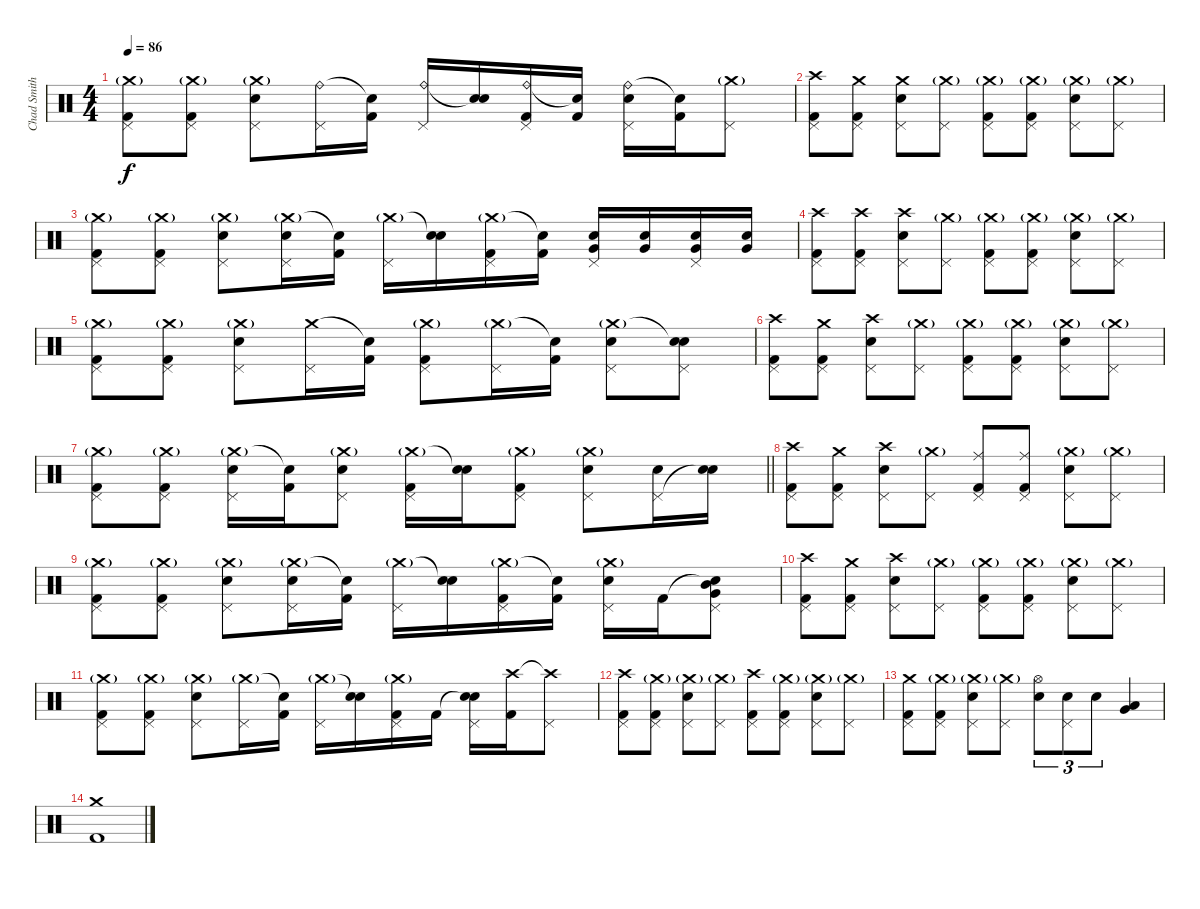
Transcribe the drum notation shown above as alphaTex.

\track ("Chad Smith" "Chad Smith") {instrument percussion}
\staff {score}
\articulation defaults
\ts (4 4)
\tempo 86
\clef neutral
\ks c
("Crash medium (hit)"{g} "Pedal Hi-Hat (hit)" "Kick (hit) 2").8{dy f} ("Crash medium (hit)"{g} "Pedal Hi-Hat (hit)" "Kick (hit) 2").8 ("Crash medium (hit)"{g} "Pedal Hi-Hat (hit)" "Electric Snare (hit)").8 ("Ride (bell)" "Pedal Hi-Hat (hit)").16 ("Snare (hit)"{t} "Kick (hit) 2").16 ("Ride (bell)" "Pedal Hi-Hat (hit)").16 ("Snare (hit)"{t} "Electric Snare (hit)").16 ("Ride (bell)" "Pedal Hi-Hat (hit)" "Kick (hit) 2").16 ("Snare (hit)"{t} "Kick (hit) 2").16 ("Ride (bell)" "Pedal Hi-Hat (hit)" "Electric Snare (hit)").16 ("Snare (hit)"{t} "Kick (hit) 2").16 ("Crash medium (hit)"{g} "Pedal Hi-Hat (hit)").8 |
("Crash high (hit)" "Pedal Hi-Hat (hit)" "Kick (hit) 2").8 ("Crash medium (hit)" "Pedal Hi-Hat (hit)" "Kick (hit) 2").8 ("Crash medium (hit)" "Pedal Hi-Hat (hit)" "Electric Snare (hit)").8 ("Crash medium (hit)"{g} "Pedal Hi-Hat (hit)").8 ("Crash medium (hit)"{g} "Pedal Hi-Hat (hit)" "Kick (hit) 2").8 ("Crash medium (hit)"{g} "Pedal Hi-Hat (hit)" "Kick (hit) 2").8 ("Crash medium (hit)"{g} "Pedal Hi-Hat (hit)" "Electric Snare (hit)").8 ("Crash medium (hit)"{g} "Pedal Hi-Hat (hit)").8 |
("Crash medium (hit)"{g} "Pedal Hi-Hat (hit)" "Kick (hit) 2").8 ("Crash medium (hit)"{g} "Pedal Hi-Hat (hit)" "Kick (hit) 2").8 ("Crash medium (hit)"{g} "Pedal Hi-Hat (hit)" "Electric Snare (hit)").8 ("Crash medium (hit)"{g} "Pedal Hi-Hat (hit)" "Electric Snare (hit)").16 ("Snare (hit)"{t} "Kick (hit) 2").16 ("Crash medium (hit)"{g} "Pedal Hi-Hat (hit)").16 ("Snare (hit)"{t} "Electric Snare (hit)").16 ("Crash medium (hit)"{g} "Pedal Hi-Hat (hit)" "Kick (hit) 2").16 ("Snare (hit)"{t} "Kick (hit) 2").16 ("Pedal Hi-Hat (hit)" "Electric Snare (hit)" "Very Low Tom (hit)").16 ("Electric Snare (hit)" "Very Low Tom (hit)").16 ("Pedal Hi-Hat (hit)" "Electric Snare (hit)" "Very Low Tom (hit)").16 ("Electric Snare (hit)" "Very Low Tom (hit)").16 |
("Crash high (hit)" "Pedal Hi-Hat (hit)" "Kick (hit) 2").8 ("Crash high (hit)" "Pedal Hi-Hat (hit)" "Kick (hit) 2").8 ("Crash high (hit)" "Pedal Hi-Hat (hit)" "Electric Snare (hit)").8 ("Crash medium (hit)"{g} "Pedal Hi-Hat (hit)").8 ("Crash medium (hit)"{g} "Pedal Hi-Hat (hit)" "Kick (hit) 2").8 ("Crash medium (hit)"{g} "Pedal Hi-Hat (hit)" "Kick (hit) 2").8 ("Crash medium (hit)"{g} "Pedal Hi-Hat (hit)" "Electric Snare (hit)").8 ("Crash medium (hit)"{g} "Pedal Hi-Hat (hit)").8 |
("Crash medium (hit)"{g} "Pedal Hi-Hat (hit)" "Kick (hit) 2").8 ("Crash medium (hit)"{g} "Pedal Hi-Hat (hit)" "Kick (hit) 2").8 ("Crash medium (hit)"{g} "Pedal Hi-Hat (hit)" "Electric Snare (hit)").8 ("Crash medium (hit)" "Pedal Hi-Hat (hit)").16 ("Snare (hit)"{t} "Kick (hit) 2").16 ("Crash medium (hit)"{g} "Pedal Hi-Hat (hit)" "Kick (hit) 2").8 ("Crash medium (hit)"{g} "Pedal Hi-Hat (hit)").16 ("Snare (hit)"{t} "Kick (hit) 2").16 ("Crash medium (hit)"{g} "Pedal Hi-Hat (hit)" "Electric Snare (hit)").8 ("Snare (hit)"{t} "Pedal Hi-Hat (hit)" "Electric Snare (hit)").8 |
("Crash high (hit)" "Pedal Hi-Hat (hit)" "Kick (hit) 2").8 ("Crash medium (hit)" "Pedal Hi-Hat (hit)" "Kick (hit) 2").8 ("Crash high (hit)" "Pedal Hi-Hat (hit)" "Electric Snare (hit)").8 ("Crash medium (hit)"{g} "Pedal Hi-Hat (hit)").8 ("Crash medium (hit)"{g} "Pedal Hi-Hat (hit)" "Kick (hit) 2").8 ("Crash medium (hit)"{g} "Pedal Hi-Hat (hit)" "Kick (hit) 2").8 ("Crash medium (hit)"{g} "Pedal Hi-Hat (hit)" "Electric Snare (hit)").8 ("Crash medium (hit)"{g} "Pedal Hi-Hat (hit)").8 |
\barLineRight lightlight
("Crash medium (hit)"{g} "Pedal Hi-Hat (hit)" "Kick (hit) 2").8 ("Crash medium (hit)"{g} "Pedal Hi-Hat (hit)" "Kick (hit) 2").8 ("Crash medium (hit)"{g} "Pedal Hi-Hat (hit)" "Electric Snare (hit)").16 ("Snare (hit)"{t} "Kick (hit) 2").16 ("Crash medium (hit)"{g} "Pedal Hi-Hat (hit)" "Electric Snare (hit)").8 ("Crash medium (hit)"{g} "Pedal Hi-Hat (hit)" "Kick (hit) 2").16 ("Snare (hit)"{t} "Electric Snare (hit)").16 ("Crash medium (hit)"{g} "Pedal Hi-Hat (hit)" "Kick (hit) 2").8 ("Crash medium (hit)"{g} "Pedal Hi-Hat (hit)" "Electric Snare (hit)").8 ("Pedal Hi-Hat (hit)" "Electric Snare (hit)").16 ("Snare (hit)"{t} "Electric Snare (hit)").16 |
("Crash high (hit)" "Pedal Hi-Hat (hit)" "Kick (hit) 2").8 ("Crash medium (hit)" "Pedal Hi-Hat (hit)" "Kick (hit) 2").8 ("Crash high (hit)" "Pedal Hi-Hat (hit)" "Electric Snare (hit)").8 ("Crash medium (hit)"{g} "Pedal Hi-Hat (hit)").8 ("Ride (middle)" "Pedal Hi-Hat (hit)" "Kick (hit) 2").8 ("Ride (middle)" "Pedal Hi-Hat (hit)" "Kick (hit) 2").8 ("Crash medium (hit)"{g} "Pedal Hi-Hat (hit)" "Electric Snare (hit)").8 ("Crash medium (hit)"{g} "Pedal Hi-Hat (hit)").8 |
("Crash medium (hit)"{g} "Pedal Hi-Hat (hit)" "Kick (hit) 2").8 ("Crash medium (hit)"{g} "Pedal Hi-Hat (hit)" "Kick (hit) 2").8 ("Crash medium (hit)"{g} "Pedal Hi-Hat (hit)" "Electric Snare (hit)").8 ("Crash medium (hit)"{g} "Pedal Hi-Hat (hit)" "Electric Snare (hit)").16 ("Snare (hit)"{t} "Kick (hit) 2").16 ("Crash medium (hit)"{g} "Pedal Hi-Hat (hit)").16 ("Snare (hit)"{t} "Electric Snare (hit)").16 ("Crash medium (hit)"{g} "Pedal Hi-Hat (hit)" "Kick (hit) 2").16 ("Snare (hit)"{t} "Kick (hit) 2").16 ("Crash medium (hit)"{g} "Pedal Hi-Hat (hit)" "Electric Snare (hit)").16 "Kick (hit) 2".16 ("Snare (hit)"{t} "Pedal Hi-Hat (hit)" "Mid Tom (hit)" "Very Low Tom (hit)").8 |
("Crash high (hit)" "Pedal Hi-Hat (hit)" "Kick (hit) 2").8 ("Crash medium (hit)" "Pedal Hi-Hat (hit)" "Kick (hit) 2").8 ("Crash high (hit)" "Pedal Hi-Hat (hit)" "Electric Snare (hit)").8 ("Crash medium (hit)"{g} "Pedal Hi-Hat (hit)").8 ("Crash medium (hit)"{g} "Pedal Hi-Hat (hit)" "Kick (hit) 2").8 ("Crash medium (hit)"{g} "Pedal Hi-Hat (hit)" "Kick (hit) 2").8 ("Crash medium (hit)"{g} "Pedal Hi-Hat (hit)" "Electric Snare (hit)").8 ("Crash medium (hit)"{g} "Pedal Hi-Hat (hit)").8 |
("Crash medium (hit)"{g} "Pedal Hi-Hat (hit)" "Kick (hit) 2").8 ("Crash medium (hit)"{g} "Pedal Hi-Hat (hit)" "Kick (hit) 2").8 ("Crash medium (hit)"{g} "Pedal Hi-Hat (hit)" "Electric Snare (hit)").8 ("Crash medium (hit)"{g} "Pedal Hi-Hat (hit)").16 ("Snare (hit)"{t} "Kick (hit) 2").16 ("Crash medium (hit)"{g} "Pedal Hi-Hat (hit)").16 ("Snare (hit)"{t} "Electric Snare (hit)").16 ("Crash medium (hit)"{g} "Pedal Hi-Hat (hit)" "Kick (hit) 2").16 "Kick (hit) 2".16 ("Snare (hit)"{t} "Pedal Hi-Hat (hit)" "Electric Snare (hit)").16 ("Crash high (hit)" "Kick (hit) 2").16 ("Crash high (hit)"{t} "Pedal Hi-Hat (hit)").8 |
("Crash high (hit)" "Pedal Hi-Hat (hit)" "Kick (hit) 2").8 ("Crash medium (hit)"{g} "Pedal Hi-Hat (hit)" "Kick (hit) 2").8 ("Crash medium (hit)"{g} "Pedal Hi-Hat (hit)" "Electric Snare (hit)").8 ("Crash medium (hit)"{g} "Pedal Hi-Hat (hit)").8 ("Crash high (hit)" "Pedal Hi-Hat (hit)" "Kick (hit) 2").8 ("Crash medium (hit)"{g} "Pedal Hi-Hat (hit)" "Kick (hit) 2").8 ("Crash medium (hit)"{g} "Pedal Hi-Hat (hit)" "Electric Snare (hit)").8 ("Crash medium (hit)"{g} "Pedal Hi-Hat (hit)").8 |
("Crash medium (hit)" "Pedal Hi-Hat (hit)" "Kick (hit) 2").8 ("Crash medium (hit)"{g} "Pedal Hi-Hat (hit)" "Kick (hit) 2").8 ("Crash medium (hit)"{g} "Pedal Hi-Hat (hit)" "Electric Snare (hit)").8 ("Crash medium (hit)"{g} "Pedal Hi-Hat (hit)").8 ("Hi-Hat (open)" "Electric Snare (hit)").8{tu (3 2)} ("Pedal Hi-Hat (hit)" "Electric Snare (hit)").8{tu (3 2)} "Electric Snare (hit)".8{tu (3 2)} ("Low Tom (hit)" "Very Low Tom (hit)").4 |
("Crash medium (hit)" "Kick (hit) 2").1
